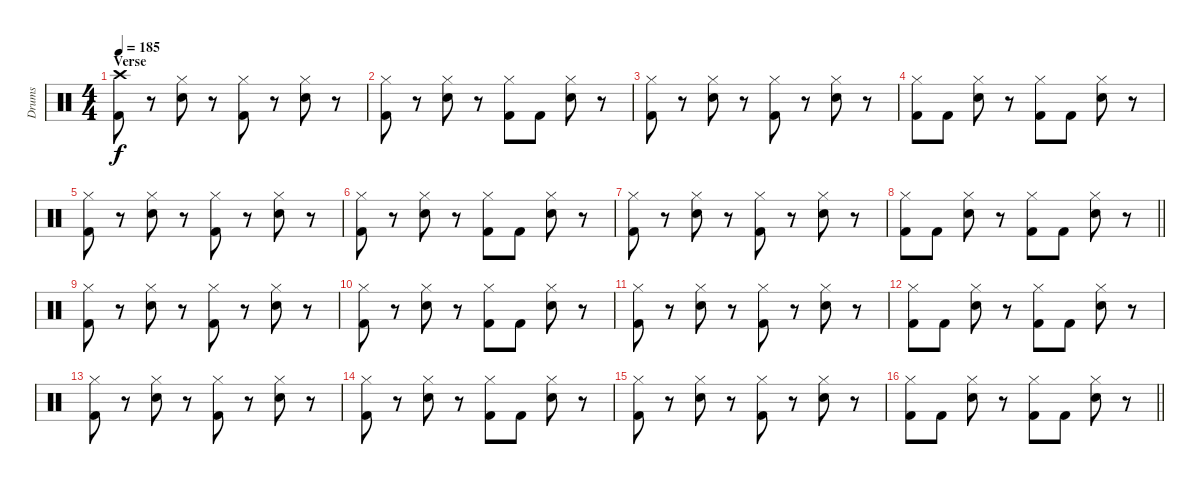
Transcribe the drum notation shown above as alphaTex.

\track ("Drums" "Drums") {instrument percussion}
\staff {score}
\articulation defaults
\ts (4 4)
\section ("" "Verse")
\tempo 185
\clef neutral
\ks c
("Crash high (hit)" "Kick (hit) 2").8{dy f} r.8 ("Hi-Hat (closed)" "Electric Snare (hit)").8 r.8 ("Hi-Hat (closed)" "Kick (hit) 2").8 r.8 ("Hi-Hat (closed)" "Electric Snare (hit)").8 r.8 |
("Hi-Hat (closed)" "Kick (hit) 2").8 r.8 ("Hi-Hat (closed)" "Electric Snare (hit)").8 r.8 ("Hi-Hat (closed)" "Kick (hit) 2").8 "Kick (hit) 2".8 ("Hi-Hat (closed)" "Electric Snare (hit)").8 r.8 |
("Hi-Hat (closed)" "Kick (hit) 2").8 r.8 ("Hi-Hat (closed)" "Electric Snare (hit)").8 r.8 ("Hi-Hat (closed)" "Kick (hit) 2").8 r.8 ("Hi-Hat (closed)" "Electric Snare (hit)").8 r.8 |
("Hi-Hat (closed)" "Kick (hit) 2").8 "Kick (hit) 2".8 ("Hi-Hat (closed)" "Electric Snare (hit)").8 r.8 ("Hi-Hat (closed)" "Kick (hit) 2").8 "Kick (hit) 2".8 ("Hi-Hat (closed)" "Electric Snare (hit)").8 r.8 |
("Hi-Hat (closed)" "Kick (hit) 2").8 r.8 ("Hi-Hat (closed)" "Electric Snare (hit)").8 r.8 ("Hi-Hat (closed)" "Kick (hit) 2").8 r.8 ("Hi-Hat (closed)" "Electric Snare (hit)").8 r.8 |
("Hi-Hat (closed)" "Kick (hit) 2").8 r.8 ("Hi-Hat (closed)" "Electric Snare (hit)").8 r.8 ("Hi-Hat (closed)" "Kick (hit) 2").8 "Kick (hit) 2".8 ("Hi-Hat (closed)" "Electric Snare (hit)").8 r.8 |
("Hi-Hat (closed)" "Kick (hit) 2").8 r.8 ("Hi-Hat (closed)" "Electric Snare (hit)").8 r.8 ("Hi-Hat (closed)" "Kick (hit) 2").8 r.8 ("Hi-Hat (closed)" "Electric Snare (hit)").8 r.8 |
\barLineRight lightlight
("Hi-Hat (closed)" "Kick (hit) 2").8 "Kick (hit) 2".8 ("Hi-Hat (closed)" "Electric Snare (hit)").8 r.8 ("Hi-Hat (closed)" "Kick (hit) 2").8 "Kick (hit) 2".8 ("Hi-Hat (closed)" "Electric Snare (hit)").8 r.8 |
("Hi-Hat (closed)" "Kick (hit) 2").8 r.8 ("Hi-Hat (closed)" "Electric Snare (hit)").8 r.8 ("Hi-Hat (closed)" "Kick (hit) 2").8 r.8 ("Hi-Hat (closed)" "Electric Snare (hit)").8 r.8 |
("Hi-Hat (closed)" "Kick (hit) 2").8 r.8 ("Hi-Hat (closed)" "Electric Snare (hit)").8 r.8 ("Hi-Hat (closed)" "Kick (hit) 2").8 "Kick (hit) 2".8 ("Hi-Hat (closed)" "Electric Snare (hit)").8 r.8 |
("Hi-Hat (closed)" "Kick (hit) 2").8 r.8 ("Hi-Hat (closed)" "Electric Snare (hit)").8 r.8 ("Hi-Hat (closed)" "Kick (hit) 2").8 r.8 ("Hi-Hat (closed)" "Electric Snare (hit)").8 r.8 |
("Hi-Hat (closed)" "Kick (hit) 2").8 "Kick (hit) 2".8 ("Hi-Hat (closed)" "Electric Snare (hit)").8 r.8 ("Hi-Hat (closed)" "Kick (hit) 2").8 "Kick (hit) 2".8 ("Hi-Hat (closed)" "Electric Snare (hit)").8 r.8 |
("Hi-Hat (closed)" "Kick (hit) 2").8 r.8 ("Hi-Hat (closed)" "Electric Snare (hit)").8 r.8 ("Hi-Hat (closed)" "Kick (hit) 2").8 r.8 ("Hi-Hat (closed)" "Electric Snare (hit)").8 r.8 |
("Hi-Hat (closed)" "Kick (hit) 2").8 r.8 ("Hi-Hat (closed)" "Electric Snare (hit)").8 r.8 ("Hi-Hat (closed)" "Kick (hit) 2").8 "Kick (hit) 2".8 ("Hi-Hat (closed)" "Electric Snare (hit)").8 r.8 |
("Hi-Hat (closed)" "Kick (hit) 2").8 r.8 ("Hi-Hat (closed)" "Electric Snare (hit)").8 r.8 ("Hi-Hat (closed)" "Kick (hit) 2").8 r.8 ("Hi-Hat (closed)" "Electric Snare (hit)").8 r.8 |
\barLineRight lightlight
("Hi-Hat (closed)" "Kick (hit) 2").8 "Kick (hit) 2".8 ("Hi-Hat (closed)" "Electric Snare (hit)").8 r.8 ("Hi-Hat (closed)" "Kick (hit) 2").8 "Kick (hit) 2".8 ("Hi-Hat (closed)" "Electric Snare (hit)").8 r.8
